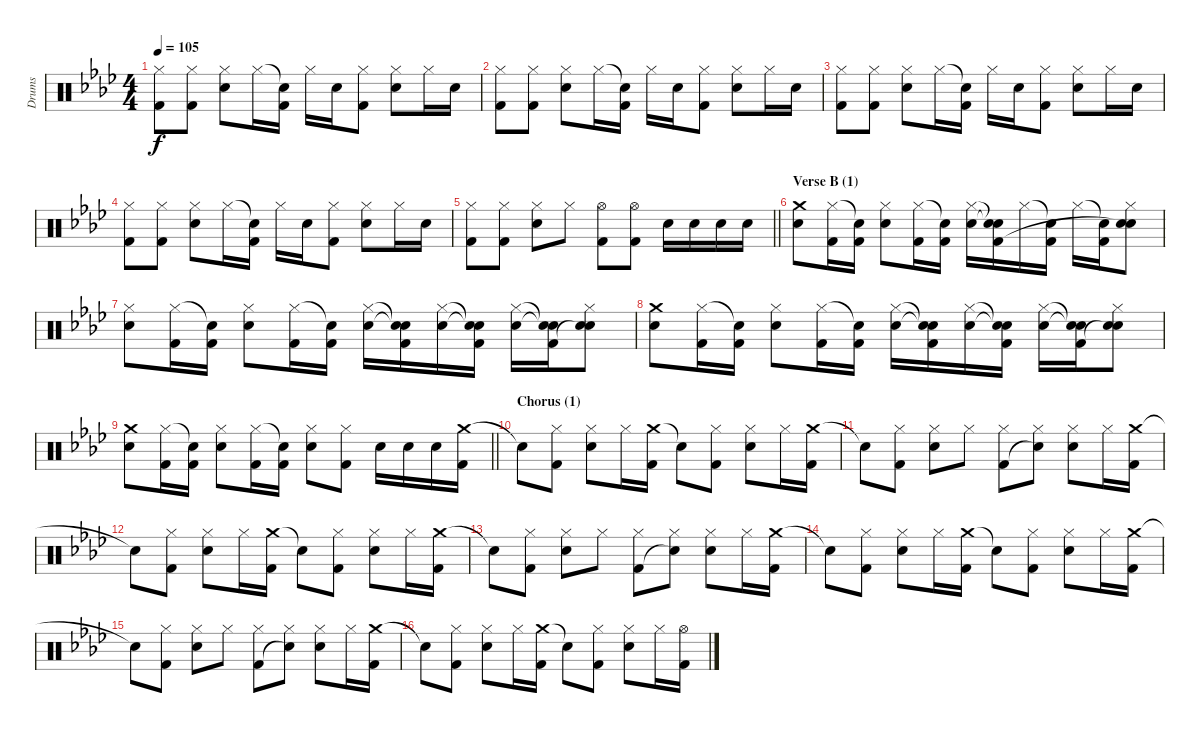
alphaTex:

\track ("Drums" "Drums") {instrument percussion}
\staff {score}
\articulation defaults
\ts (4 4)
\tempo 105
\clef neutral
\ks fminor
("Hi-Hat (closed)" "Kick (hit) 2").8{dy f} ("Hi-Hat (closed)" "Kick (hit) 2").8 ("Hi-Hat (closed)" "Electric Snare (hit)").8 "Hi-Hat (closed)".16 ("Snare (hit)"{t} "Kick (hit) 2").16 "Hi-Hat (closed)".16 "Electric Snare (hit)".16 ("Hi-Hat (closed)" "Kick (hit) 2").8 ("Hi-Hat (closed)" "Electric Snare (hit)").8 "Hi-Hat (closed)".16 "Electric Snare (hit)".16 |
("Hi-Hat (closed)" "Kick (hit) 2").8 ("Hi-Hat (closed)" "Kick (hit) 2").8 ("Hi-Hat (closed)" "Electric Snare (hit)").8 "Hi-Hat (closed)".16 ("Snare (hit)"{t} "Kick (hit) 2").16 "Hi-Hat (closed)".16 "Electric Snare (hit)".16 ("Hi-Hat (closed)" "Kick (hit) 2").8 ("Hi-Hat (closed)" "Electric Snare (hit)").8 "Hi-Hat (closed)".16 "Electric Snare (hit)".16 |
("Hi-Hat (closed)" "Kick (hit) 2").8 ("Hi-Hat (closed)" "Kick (hit) 2").8 ("Hi-Hat (closed)" "Electric Snare (hit)").8 "Hi-Hat (closed)".16 ("Snare (hit)"{t} "Kick (hit) 2").16 "Hi-Hat (closed)".16 "Electric Snare (hit)".16 ("Hi-Hat (closed)" "Kick (hit) 2").8 ("Hi-Hat (closed)" "Electric Snare (hit)").8 "Hi-Hat (closed)".16 "Electric Snare (hit)".16 |
("Hi-Hat (closed)" "Kick (hit) 2").8 ("Hi-Hat (closed)" "Kick (hit) 2").8 ("Hi-Hat (closed)" "Electric Snare (hit)").8 "Hi-Hat (closed)".16 ("Snare (hit)"{t} "Kick (hit) 2").16 "Hi-Hat (closed)".16 "Electric Snare (hit)".16 ("Hi-Hat (closed)" "Kick (hit) 2").8 ("Hi-Hat (closed)" "Electric Snare (hit)").8 "Hi-Hat (closed)".16 "Electric Snare (hit)".16 |
\barLineRight lightlight
("Hi-Hat (closed)" "Kick (hit) 2").8 ("Hi-Hat (closed)" "Kick (hit) 2").8 ("Hi-Hat (closed)" "Electric Snare (hit)").8 "Hi-Hat (closed)".8 ("Hi-Hat (open)" "Kick (hit) 2").8 ("Hi-Hat (open)" "Kick (hit) 2").8 "Electric Snare (hit)".16 "Electric Snare (hit)".16 "Electric Snare (hit)".16 "Electric Snare (hit)".16 |
\section ("" "Verse B (1)")
("Crash medium (hit)" "Electric Snare (hit)").8 ("Hi-Hat (closed)" "Kick (hit) 2").16 ("Snare (hit)"{t} "Kick (hit) 2").16 ("Hi-Hat (closed)" "Electric Snare (hit)").8 ("Hi-Hat (closed)" "Kick (hit) 2").16 ("Snare (hit)"{t} "Kick (hit) 2").16 ("Hi-Hat (closed)" "Electric Snare (hit)").16 ("Snare (hit)"{t} "Snare (hit)"{t} "Kick (hit) 2").16 "Hi-Hat (closed)".16 ("Snare (hit)"{t} "Kick (hit) 2").16 "Hi-Hat (closed)".16 ("Snare (hit)"{t} "Kick (hit) 2").16 ("Hi-Hat (closed)" "Electric Snare (hit)" "Snare (hit)"{t}).8 |
("Hi-Hat (closed)" "Electric Snare (hit)").8 ("Hi-Hat (closed)" "Kick (hit) 2").16 ("Snare (hit)"{t} "Kick (hit) 2").16 ("Hi-Hat (closed)" "Electric Snare (hit)").8 ("Hi-Hat (closed)" "Kick (hit) 2").16 ("Snare (hit)"{t} "Kick (hit) 2").16 ("Hi-Hat (closed)" "Electric Snare (hit)").16 ("Snare (hit)"{t} "Snare (hit)"{t} "Kick (hit) 2").16 ("Hi-Hat (closed)" "Electric Snare (hit)").16 ("Snare (hit)"{t} "Snare (hit)"{t} "Kick (hit) 2").16 ("Hi-Hat (closed)" "Electric Snare (hit)").16 ("Snare (hit)"{t} "Snare (hit)"{t} "Kick (hit) 2").16 ("Hi-Hat (closed)" "Electric Snare (hit)" "Snare (hit)"{t}).8 |
("Crash medium (hit)" "Electric Snare (hit)").8 ("Hi-Hat (closed)" "Kick (hit) 2").16 ("Snare (hit)"{t} "Kick (hit) 2").16 ("Hi-Hat (closed)" "Electric Snare (hit)").8 ("Hi-Hat (closed)" "Kick (hit) 2").16 ("Snare (hit)"{t} "Kick (hit) 2").16 ("Hi-Hat (closed)" "Electric Snare (hit)").16 ("Snare (hit)"{t} "Snare (hit)"{t} "Kick (hit) 2").16 ("Hi-Hat (closed)" "Electric Snare (hit)").16 ("Snare (hit)"{t} "Snare (hit)"{t} "Kick (hit) 2").16 ("Hi-Hat (closed)" "Electric Snare (hit)").16 ("Snare (hit)"{t} "Snare (hit)"{t} "Kick (hit) 2").16 ("Hi-Hat (closed)" "Electric Snare (hit)" "Snare (hit)"{t}).8 |
\barLineRight lightlight
("Crash medium (hit)" "Electric Snare (hit)").8 ("Hi-Hat (closed)" "Kick (hit) 2").16 ("Snare (hit)"{t} "Kick (hit) 2").16 ("Hi-Hat (closed)" "Electric Snare (hit)").8 ("Hi-Hat (closed)" "Kick (hit) 2").16 ("Snare (hit)"{t} "Kick (hit) 2").16 ("Hi-Hat (closed)" "Electric Snare (hit)").8 ("Hi-Hat (closed)" "Kick (hit) 2").8 "Electric Snare (hit)".16 "Electric Snare (hit)".16 "Electric Snare (hit)".16 ("Crash medium (hit)" "Kick (hit) 2").16 |
\section ("" "Chorus (1)")
"Snare (hit)"{t}.8 ("Hi-Hat (closed)" "Kick (hit) 2").8 ("Hi-Hat (closed)" "Electric Snare (hit)").8 "Hi-Hat (closed)".16 ("Crash medium (hit)" "Kick (hit) 2").16 "Snare (hit)"{t}.8 ("Hi-Hat (closed)" "Kick (hit) 2").8 ("Hi-Hat (closed)" "Electric Snare (hit)").8 "Hi-Hat (closed)".16 ("Crash medium (hit)" "Kick (hit) 2").16 |
"Snare (hit)"{t}.8 ("Hi-Hat (closed)" "Kick (hit) 2").8 ("Hi-Hat (closed)" "Electric Snare (hit)").8 "Hi-Hat (closed)".8 ("Hi-Hat (closed)" "Kick (hit) 2").8 ("Hi-Hat (closed)" "Snare (hit)"{t}).8 ("Hi-Hat (closed)" "Electric Snare (hit)").8 "Hi-Hat (closed)".16 ("Crash medium (hit)" "Kick (hit) 2").16 |
"Snare (hit)"{t}.8 ("Hi-Hat (closed)" "Kick (hit) 2").8 ("Hi-Hat (closed)" "Electric Snare (hit)").8 "Hi-Hat (closed)".16 ("Crash medium (hit)" "Kick (hit) 2").16 "Snare (hit)"{t}.8 ("Hi-Hat (closed)" "Kick (hit) 2").8 ("Hi-Hat (closed)" "Electric Snare (hit)").8 "Hi-Hat (closed)".16 ("Crash medium (hit)" "Kick (hit) 2").16 |
"Snare (hit)"{t}.8 ("Hi-Hat (closed)" "Kick (hit) 2").8 ("Hi-Hat (closed)" "Electric Snare (hit)").8 "Hi-Hat (closed)".8 ("Hi-Hat (closed)" "Kick (hit) 2").8 ("Hi-Hat (closed)" "Snare (hit)"{t}).8 ("Hi-Hat (closed)" "Electric Snare (hit)").8 "Hi-Hat (closed)".16 ("Crash medium (hit)" "Kick (hit) 2").16 |
"Snare (hit)"{t}.8 ("Hi-Hat (closed)" "Kick (hit) 2").8 ("Hi-Hat (closed)" "Electric Snare (hit)").8 "Hi-Hat (closed)".16 ("Crash medium (hit)" "Kick (hit) 2").16 "Snare (hit)"{t}.8 ("Hi-Hat (closed)" "Kick (hit) 2").8 ("Hi-Hat (closed)" "Electric Snare (hit)").8 "Hi-Hat (closed)".16 ("Crash medium (hit)" "Kick (hit) 2").16 |
"Snare (hit)"{t}.8 ("Hi-Hat (closed)" "Kick (hit) 2").8 ("Hi-Hat (closed)" "Electric Snare (hit)").8 "Hi-Hat (closed)".8 ("Hi-Hat (closed)" "Kick (hit) 2").8 ("Hi-Hat (closed)" "Snare (hit)"{t}).8 ("Hi-Hat (closed)" "Electric Snare (hit)").8 "Hi-Hat (closed)".16 ("Crash medium (hit)" "Kick (hit) 2").16 |
"Snare (hit)"{t}.8 ("Hi-Hat (closed)" "Kick (hit) 2").8 ("Hi-Hat (closed)" "Electric Snare (hit)").8 "Hi-Hat (closed)".16 ("Crash medium (hit)" "Kick (hit) 2").16 "Snare (hit)"{t}.8 ("Hi-Hat (closed)" "Kick (hit) 2").8 ("Hi-Hat (closed)" "Electric Snare (hit)").8 "Hi-Hat (closed)".16 ("Hi-Hat (open)" "Kick (hit) 2").16
